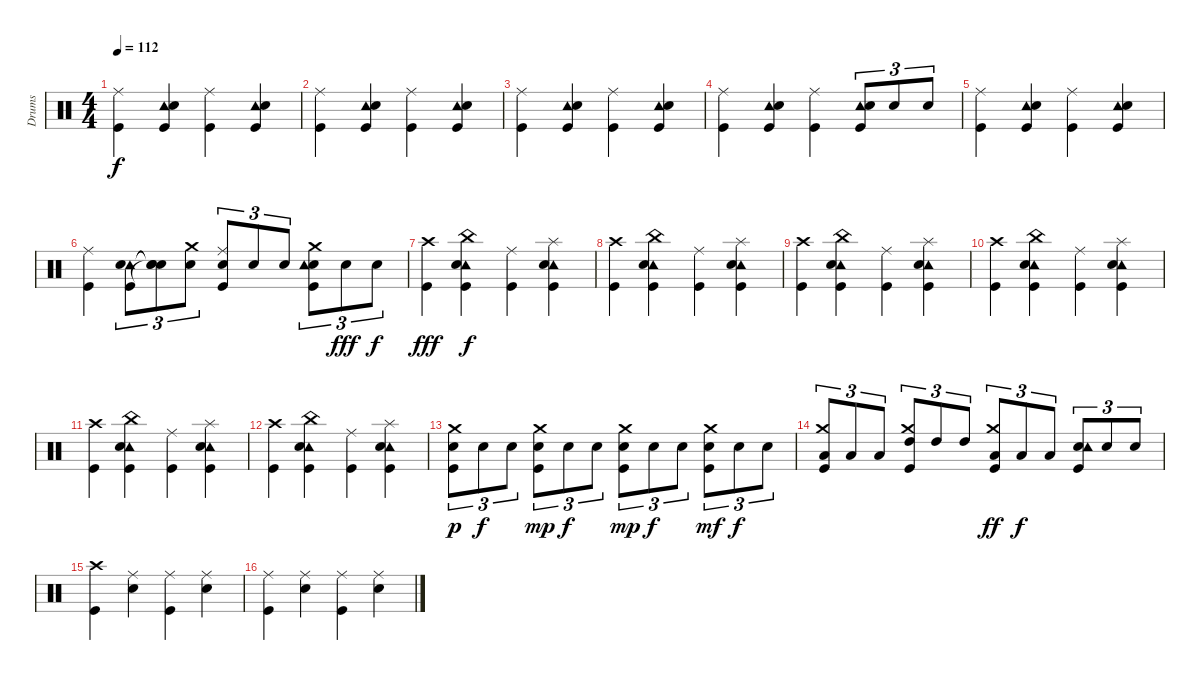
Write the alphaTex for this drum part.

\track ("Drums" "Drums") {instrument percussion}
\staff {score}
\articulation defaults
\ts (4 4)
\tempo 112
\clef neutral
\ks c
("Kick (hit)" "Ride (middle)").4{dy f} ("Tambourine (hit)" "Snare (hit) 2" "Kick (hit)").4 ("Kick (hit)" "Ride (middle)").4 ("Tambourine (hit)" "Snare (hit) 2" "Kick (hit)").4 |
("Kick (hit)" "Ride (middle)").4 ("Tambourine (hit)" "Snare (hit) 2" "Kick (hit)").4 ("Kick (hit)" "Ride (middle)").4 ("Tambourine (hit)" "Snare (hit) 2" "Kick (hit)").4 |
("Kick (hit)" "Ride (middle)").4 ("Tambourine (hit)" "Snare (hit) 2" "Kick (hit)").4 ("Kick (hit)" "Ride (middle)").4 ("Tambourine (hit)" "Snare (hit) 2" "Kick (hit)").4 |
("Kick (hit)" "Ride (middle)").4 ("Tambourine (hit)" "Snare (hit) 2" "Kick (hit)").4 ("Kick (hit)" "Ride (middle)").4 ("Tambourine (hit)" "Snare (hit) 2" "Kick (hit)").8{tu (3 2)} "Snare (hit) 2".8{tu (3 2)} "Snare (hit) 2".8{tu (3 2)} |
("Kick (hit)" "Ride (middle)").4 ("Tambourine (hit)" "Snare (hit) 2" "Kick (hit)").4 ("Kick (hit)" "Ride (middle)").4 ("Tambourine (hit)" "Snare (hit) 2" "Kick (hit)").4 |
("Kick (hit)" "Ride (middle)").4 ("Tambourine (hit)" "Snare (hit) 2" "Kick (hit)").8{tu (3 2)} ("Snare (hit)"{t} "Snare (hit)"{t} "Snare (hit)"{t}).8{tu (3 2)} ("Crash medium (hit)" "Snare (hit) 2").8{tu (3 2)} ("Snare (hit) 2" "Kick (hit)" "Ride (middle)").8{tu (3 2)} "Snare (hit) 2".8{tu (3 2)} "Snare (hit) 2".8{tu (3 2)} ("Snare (hit) 2" "Crash medium (hit)" "Tambourine (hit)" "Kick (hit)").8{tu (3 2)} "Snare (hit) 2".8{tu (3 2) dy fff} "Snare (hit) 2".8{tu (3 2) dy f} |
("Kick (hit)" "Crash high (hit)").4{dy fff} ("China (hit)" "Tambourine (hit)" "Snare (hit) 2" "Kick (hit)").4{dy f} ("Kick (hit)" "Ride (middle)").4 ("Splash (hit)" "Tambourine (hit)" "Snare (hit) 2" "Kick (hit)").4 |
("Kick (hit)" "Crash high (hit)").4 ("China (hit)" "Tambourine (hit)" "Snare (hit) 2" "Kick (hit)").4 ("Kick (hit)" "Ride (middle)").4 ("Splash (hit)" "Tambourine (hit)" "Snare (hit) 2" "Kick (hit)").4 |
("Kick (hit)" "Crash high (hit)").4 ("China (hit)" "Tambourine (hit)" "Snare (hit) 2" "Kick (hit)").4 ("Kick (hit)" "Ride (middle)").4 ("Splash (hit)" "Tambourine (hit)" "Snare (hit) 2" "Kick (hit)").4 |
("Kick (hit)" "Crash high (hit)").4 ("China (hit)" "Tambourine (hit)" "Snare (hit) 2" "Kick (hit)").4 ("Kick (hit)" "Ride (middle)").4 ("Splash (hit)" "Tambourine (hit)" "Snare (hit) 2" "Kick (hit)").4 |
("Kick (hit)" "Crash high (hit)").4 ("China (hit)" "Tambourine (hit)" "Snare (hit) 2" "Kick (hit)").4 ("Kick (hit)" "Ride (middle)").4 ("Splash (hit)" "Tambourine (hit)" "Snare (hit) 2" "Kick (hit)").4 |
("Kick (hit)" "Crash high (hit)").4 ("China (hit)" "Tambourine (hit)" "Snare (hit) 2" "Kick (hit)").4 ("Kick (hit)" "Ride (middle)").4 ("Splash (hit)" "Tambourine (hit)" "Snare (hit) 2" "Kick (hit)").4 |
("Crash medium (hit)" "Kick (hit)" "Snare (hit) 2").8{tu (3 2) dy p} "Snare (hit) 2".8{tu (3 2) dy f} "Snare (hit) 2".8{tu (3 2)} ("Crash medium (hit)" "Kick (hit)" "Snare (hit) 2").8{tu (3 2) dy mp} "Snare (hit) 2".8{tu (3 2) dy f} "Snare (hit) 2".8{tu (3 2)} ("Crash medium (hit)" "Kick (hit)" "Snare (hit) 2").8{tu (3 2) dy mp} "Snare (hit) 2".8{tu (3 2) dy f} "Snare (hit) 2".8{tu (3 2)} ("Crash medium (hit)" "Kick (hit)" "Snare (hit) 2").8{tu (3 2) dy mf} "Snare (hit) 2".8{tu (3 2) dy f} "Snare (hit) 2".8{tu (3 2)} |
("Low Tom (hit)" "Crash medium (hit)" "Kick (hit)").8{tu (3 2)} "Low Tom (hit)".8{tu (3 2)} "Low Tom (hit)".8{tu (3 2)} ("High Tom (hit)" "Crash medium (hit)" "Kick (hit)").8{tu (3 2)} "High Tom (hit)".8{tu (3 2)} "High Tom (hit)".8{tu (3 2)} ("Low Floor Tom (hit)" "Crash medium (hit)" "Kick (hit)").8{tu (3 2) dy ff} "Low Floor Tom (hit)".8{tu (3 2) dy f} "Low Floor Tom (hit)".8{tu (3 2)} ("Snare (hit) 2" "Tambourine (hit)" "Kick (hit)").8{tu (3 2)} "Snare (hit) 2".8{tu (3 2)} "Snare (hit) 2".8{tu (3 2)} |
("Crash high (hit)" "Kick (hit)").4 ("Snare (hit) 2" "Ride (middle)").4 ("Ride (middle)" "Kick (hit)").4 ("Ride (middle)" "Snare (hit) 2").4 |
("Ride (middle)" "Kick (hit)").4 ("Ride (middle)" "Snare (hit) 2").4 ("Ride (middle)" "Kick (hit)").4 ("Ride (middle)" "Snare (hit) 2").4
